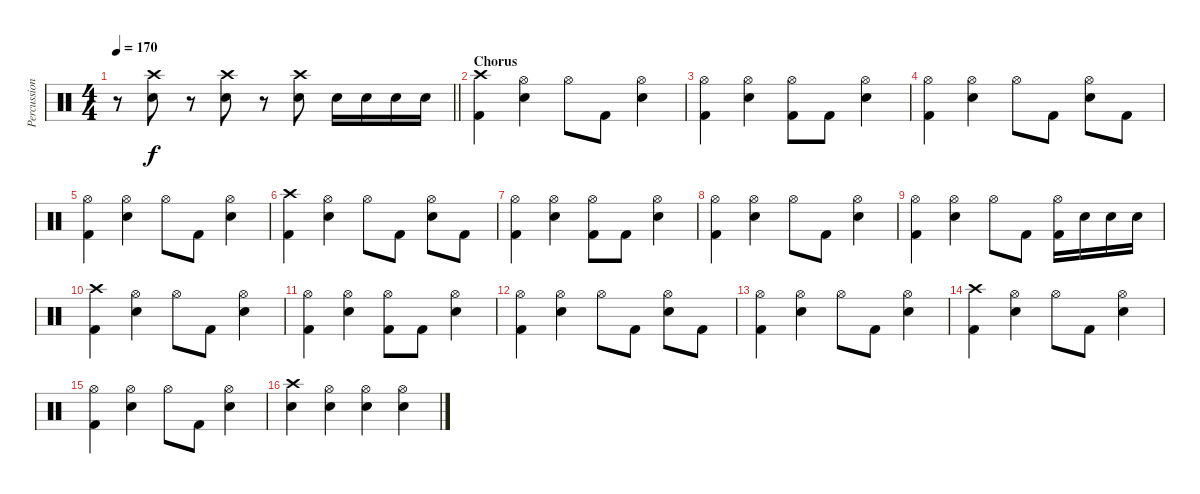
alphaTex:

\track ("Percussion" "Percussion") {instrument percussion}
\staff {score}
\articulation defaults
\ts (4 4)
\tempo 170
\clef neutral
\barLineRight lightlight
\ks c
r.8{dy f} ("Crash high (hit)" "Snare (hit) 2").8 r.8 ("Crash high (hit)" "Snare (hit) 2").8 r.8 ("Crash high (hit)" "Snare (hit) 2").8 "Snare (hit) 2".16 "Snare (hit) 2".16 "Snare (hit) 2".16 "Snare (hit) 2".16 |
\section ("" "Chorus")
("Crash high (hit)" "Kick (hit) 2").4 ("Hi-Hat (open)" "Snare (hit) 2").4 "Hi-Hat (open)".8 "Kick (hit) 2".8 ("Hi-Hat (open)" "Snare (hit) 2").4 |
("Hi-Hat (open)" "Kick (hit) 2").4 ("Hi-Hat (open)" "Snare (hit) 2").4 ("Hi-Hat (open)" "Kick (hit) 2").8 "Kick (hit) 2".8 ("Hi-Hat (open)" "Snare (hit) 2").4 |
("Hi-Hat (open)" "Kick (hit) 2").4 ("Hi-Hat (open)" "Snare (hit) 2").4 "Hi-Hat (open)".8 "Kick (hit) 2".8 ("Hi-Hat (open)" "Snare (hit) 2").8 "Kick (hit) 2".8 |
("Hi-Hat (open)" "Kick (hit) 2").4 ("Hi-Hat (open)" "Snare (hit) 2").4 "Hi-Hat (open)".8 "Kick (hit) 2".8 ("Hi-Hat (open)" "Snare (hit) 2").4 |
("Crash high (hit)" "Kick (hit) 2").4 ("Hi-Hat (open)" "Snare (hit) 2").4 "Hi-Hat (open)".8 "Kick (hit) 2".8 ("Hi-Hat (open)" "Snare (hit) 2").8 "Kick (hit) 2".8 |
("Hi-Hat (open)" "Kick (hit) 2").4 ("Hi-Hat (open)" "Snare (hit) 2").4 ("Hi-Hat (open)" "Kick (hit) 2").8 "Kick (hit) 2".8 ("Hi-Hat (open)" "Snare (hit) 2").4 |
("Hi-Hat (open)" "Kick (hit) 2").4 ("Hi-Hat (open)" "Snare (hit) 2").4 "Hi-Hat (open)".8 "Kick (hit) 2".8 ("Hi-Hat (open)" "Snare (hit) 2").4 |
("Hi-Hat (open)" "Kick (hit) 2").4 ("Hi-Hat (open)" "Snare (hit) 2").4 "Hi-Hat (open)".8 "Kick (hit) 2".8 ("Hi-Hat (open)" "Kick (hit) 2").16 "Electric Snare (hit)".16 "Electric Snare (hit)".16 "Electric Snare (hit)".16 |
("Crash high (hit)" "Kick (hit) 2").4 ("Hi-Hat (open)" "Snare (hit) 2").4 "Hi-Hat (open)".8 "Kick (hit) 2".8 ("Hi-Hat (open)" "Snare (hit) 2").4 |
("Hi-Hat (open)" "Kick (hit) 2").4 ("Hi-Hat (open)" "Snare (hit) 2").4 ("Hi-Hat (open)" "Kick (hit) 2").8 "Kick (hit) 2".8 ("Hi-Hat (open)" "Snare (hit) 2").4 |
("Hi-Hat (open)" "Kick (hit) 2").4 ("Hi-Hat (open)" "Snare (hit) 2").4 "Hi-Hat (open)".8 "Kick (hit) 2".8 ("Hi-Hat (open)" "Snare (hit) 2").8 "Kick (hit) 2".8 |
("Hi-Hat (open)" "Kick (hit) 2").4 ("Hi-Hat (open)" "Snare (hit) 2").4 "Hi-Hat (open)".8 "Kick (hit) 2".8 ("Hi-Hat (open)" "Snare (hit) 2").4 |
("Crash high (hit)" "Kick (hit) 2").4 ("Hi-Hat (open)" "Snare (hit) 2").4 "Hi-Hat (open)".8 "Kick (hit) 2".8 ("Hi-Hat (open)" "Snare (hit) 2").4 |
("Hi-Hat (open)" "Kick (hit) 2").4 ("Hi-Hat (open)" "Snare (hit) 2").4 "Hi-Hat (open)".8 "Kick (hit) 2".8 ("Hi-Hat (open)" "Snare (hit) 2").4 |
("Crash high (hit)" "Snare (hit) 2").4 ("Hi-Hat (open)" "Snare (hit) 2").4 ("Hi-Hat (open)" "Snare (hit) 2").4 ("Hi-Hat (open)" "Snare (hit) 2").4
